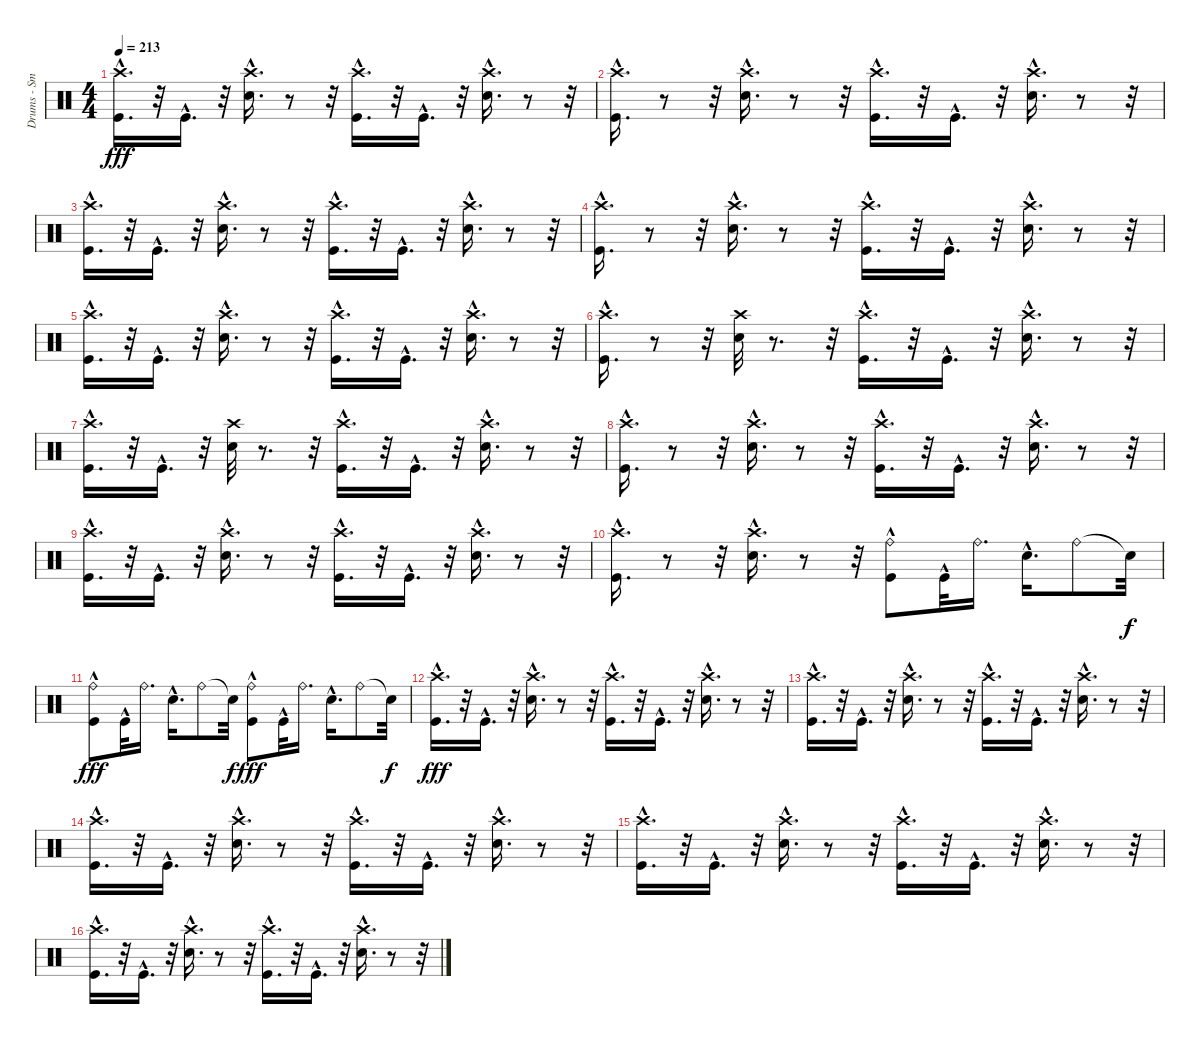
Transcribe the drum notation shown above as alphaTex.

\track ("Drums - Smelly" "Drums - Sm") {instrument percussion}
\staff {score}
\articulation defaults
\ts (4 4)
\tempo 213
\clef neutral
\ks c
("Crash high (hit)"{hac} "Kick (hit)"{hac}).16{d dy fff} r.32 "Kick (hit)"{hac}.16{d} r.32 ("Electric Snare (hit)"{hac} "Crash high (hit)"{hac}).16{d} r.8 r.32 ("Crash high (hit)"{hac} "Kick (hit)"{hac}).16{d} r.32 "Kick (hit)"{hac}.16{d} r.32 ("Crash high (hit)"{hac} "Electric Snare (hit)"{hac}).16{d} r.8 r.32 |
("Kick (hit)"{hac} "Crash high (hit)"{hac}).16{d} r.8 r.32 ("Electric Snare (hit)"{hac} "Crash high (hit)"{hac}).16{d} r.8 r.32 ("Kick (hit)"{hac} "Crash high (hit)"{hac}).16{d} r.32 "Kick (hit)"{hac}.16{d} r.32 ("Crash high (hit)"{hac} "Electric Snare (hit)"{hac}).16{d} r.8 r.32 |
("Crash high (hit)"{hac} "Kick (hit)"{hac}).16{d} r.32 "Kick (hit)"{hac}.16{d} r.32 ("Electric Snare (hit)"{hac} "Crash high (hit)"{hac}).16{d} r.8 r.32 ("Crash high (hit)"{hac} "Kick (hit)"{hac}).16{d} r.32 "Kick (hit)"{hac}.16{d} r.32 ("Electric Snare (hit)"{hac} "Crash high (hit)"{hac}).16{d} r.8 r.32 |
("Crash high (hit)"{hac} "Kick (hit)"{hac}).16{d} r.8 r.32 ("Electric Snare (hit)"{hac} "Crash high (hit)"{hac}).16{d} r.8 r.32 ("Crash high (hit)"{hac} "Kick (hit)"{hac}).16{d} r.32 "Kick (hit)"{hac}.16{d} r.32 ("Electric Snare (hit)"{hac} "Crash high (hit)"{hac}).16{d} r.8 r.32 |
("Crash high (hit)"{hac} "Kick (hit)"{hac}).16{d} r.32 "Kick (hit)"{hac}.16{d} r.32 ("Crash high (hit)"{hac} "Electric Snare (hit)"{hac}).16{d} r.8 r.32 ("Kick (hit)"{hac} "Crash high (hit)"{hac}).16{d} r.32 "Kick (hit)"{hac}.16{d} r.32 ("Electric Snare (hit)"{hac} "Crash high (hit)"{hac}).16{d} r.8 r.32 |
("Crash high (hit)"{hac} "Kick (hit)"{hac}).16{d} r.8 r.32 ("Crash high (hit)" "Electric Snare (hit)").32 r.8{d} r.32 ("Kick (hit)"{hac} "Crash high (hit)"{hac}).16{d} r.32 "Kick (hit)"{hac}.16{d} r.32 ("Crash high (hit)"{hac} "Electric Snare (hit)"{hac}).16{d} r.8 r.32 |
("Crash high (hit)"{hac} "Kick (hit)"{hac}).16{d} r.32 "Kick (hit)"{hac}.16{d} r.32 ("Crash high (hit)" "Electric Snare (hit)").32 r.8{d} r.32 ("Crash high (hit)"{hac} "Kick (hit)"{hac}).16{d} r.32 "Kick (hit)"{hac}.16{d} r.32 ("Electric Snare (hit)"{hac} "Crash high (hit)"{hac}).16{d} r.8 r.32 |
("Crash high (hit)"{hac} "Kick (hit)"{hac}).16{d} r.8 r.32 ("Electric Snare (hit)"{hac} "Crash high (hit)"{hac}).16{d} r.8 r.32 ("Kick (hit)"{hac} "Crash high (hit)"{hac}).16{d} r.32 "Kick (hit)"{hac}.16{d} r.32 ("Electric Snare (hit)"{hac} "Crash high (hit)"{hac}).16{d} r.8 r.32 |
("Crash high (hit)"{hac} "Kick (hit)"{hac}).16{d} r.32 "Kick (hit)"{hac}.16{d} r.32 ("Crash high (hit)"{hac} "Electric Snare (hit)"{hac}).16{d} r.8 r.32 ("Kick (hit)"{hac} "Crash high (hit)"{hac}).16{d} r.32 "Kick (hit)"{hac}.16{d} r.32 ("Electric Snare (hit)"{hac} "Crash high (hit)"{hac}).16{d} r.8 r.32 |
("Crash high (hit)"{hac} "Kick (hit)"{hac}).16{d} r.8 r.32 ("Crash high (hit)"{hac} "Electric Snare (hit)"{hac}).16{d} r.8 r.32 ("Kick (hit)"{hac} "Ride (bell)").8 "Kick (hit)"{hac}.32 "Ride (bell)".16{d} "Electric Snare (hit)"{hac}.16{d} "Ride (bell)".8 "Snare (hit)"{t}.32{dy f} |
("Ride (bell)" "Kick (hit)"{hac}).8{dy fff} "Kick (hit)"{hac}.32 "Ride (bell)".16{d} "Electric Snare (hit)"{hac}.16{d} "Ride (bell)".8 "Snare (hit)"{t}.32{dy f} ("Ride (bell)" "Kick (hit)"{hac}).8{dy fff} "Kick (hit)"{hac}.32 "Ride (bell)".16{d} "Electric Snare (hit)"{hac}.16{d} "Ride (bell)".8 "Snare (hit)"{t}.32{dy f} |
("Crash high (hit)"{hac} "Kick (hit)"{hac}).16{d dy fff} r.32 "Kick (hit)"{hac}.16{d} r.32 ("Crash high (hit)"{hac} "Electric Snare (hit)"{hac}).16{d} r.8 r.32 ("Kick (hit)"{hac} "Crash high (hit)"{hac}).16{d} r.32 "Kick (hit)"{hac}.16{d} r.32 ("Electric Snare (hit)"{hac} "Crash high (hit)"{hac}).16{d} r.8 r.32 |
("Crash high (hit)"{hac} "Kick (hit)"{hac}).16{d} r.32 "Kick (hit)"{hac}.16{d} r.32 ("Crash high (hit)"{hac} "Electric Snare (hit)"{hac}).16{d} r.8 r.32 ("Crash high (hit)"{hac} "Kick (hit)"{hac}).16{d} r.32 "Kick (hit)"{hac}.16{d} r.32 ("Electric Snare (hit)"{hac} "Crash high (hit)"{hac}).16{d} r.8 r.32 |
("Crash high (hit)"{hac} "Kick (hit)"{hac}).16{d} r.32 "Kick (hit)"{hac}.16{d} r.32 ("Crash high (hit)"{hac} "Electric Snare (hit)"{hac}).16{d} r.8 r.32 ("Kick (hit)"{hac} "Crash high (hit)"{hac}).16{d} r.32 "Kick (hit)"{hac}.16{d} r.32 ("Electric Snare (hit)"{hac} "Crash high (hit)"{hac}).16{d} r.8 r.32 |
("Crash high (hit)"{hac} "Kick (hit)"{hac}).16{d} r.32 "Kick (hit)"{hac}.16{d} r.32 ("Crash high (hit)"{hac} "Electric Snare (hit)"{hac}).16{d} r.8 r.32 ("Crash high (hit)"{hac} "Kick (hit)"{hac}).16{d} r.32 "Kick (hit)"{hac}.16{d} r.32 ("Electric Snare (hit)"{hac} "Crash high (hit)"{hac}).16{d} r.8 r.32 |
("Crash high (hit)"{hac} "Kick (hit)"{hac}).16{d} r.32 "Kick (hit)"{hac}.16{d} r.32 ("Crash high (hit)"{hac} "Electric Snare (hit)"{hac}).16{d} r.8 r.32 ("Kick (hit)"{hac} "Crash high (hit)"{hac}).16{d} r.32 "Kick (hit)"{hac}.16{d} r.32 ("Electric Snare (hit)"{hac} "Crash high (hit)"{hac}).16{d} r.8 r.32
